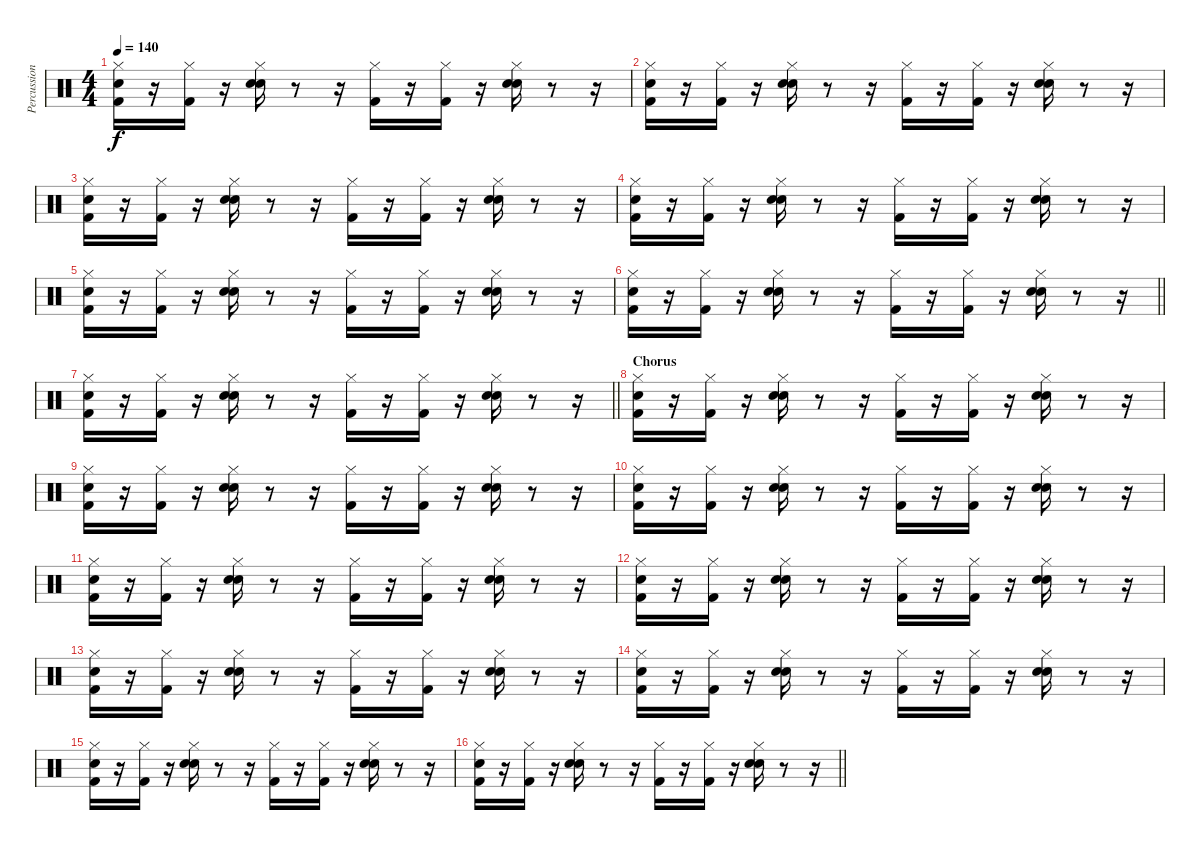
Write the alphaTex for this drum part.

\track ("Percussion" "Percussion") {instrument percussion}
\staff {score}
\articulation defaults
\ts (4 4)
\tempo 140
\clef neutral
\ks c
("Snare (hit)" "Kick (hit) 2" "Hi-Hat (closed)").16{dy f} r.16 ("Kick (hit) 2" "Hi-Hat (closed)").16 r.16 ("Hand Clap (hit)" "Hi-Hat (closed)" "Snare (hit) 2").16 r.8 r.16 ("Hi-Hat (closed)" "Kick (hit) 2").16 r.16 ("Hi-Hat (closed)" "Kick (hit) 2").16 r.16 ("Snare (hit) 2" "Hand Clap (hit)" "Hi-Hat (closed)").16 r.8 r.16 |
("Snare (hit)" "Kick (hit) 2" "Hi-Hat (closed)").16 r.16 ("Kick (hit) 2" "Hi-Hat (closed)").16 r.16 ("Hand Clap (hit)" "Hi-Hat (closed)" "Snare (hit) 2").16 r.8 r.16 ("Hi-Hat (closed)" "Kick (hit) 2").16 r.16 ("Hi-Hat (closed)" "Kick (hit) 2").16 r.16 ("Snare (hit) 2" "Hand Clap (hit)" "Hi-Hat (closed)").16 r.8 r.16 |
("Snare (hit)" "Kick (hit) 2" "Hi-Hat (closed)").16 r.16 ("Kick (hit) 2" "Hi-Hat (closed)").16 r.16 ("Hand Clap (hit)" "Hi-Hat (closed)" "Snare (hit) 2").16 r.8 r.16 ("Hi-Hat (closed)" "Kick (hit) 2").16 r.16 ("Hi-Hat (closed)" "Kick (hit) 2").16 r.16 ("Snare (hit) 2" "Hand Clap (hit)" "Hi-Hat (closed)").16 r.8 r.16 |
("Snare (hit)" "Kick (hit) 2" "Hi-Hat (closed)").16 r.16 ("Kick (hit) 2" "Hi-Hat (closed)").16 r.16 ("Hand Clap (hit)" "Hi-Hat (closed)" "Snare (hit) 2").16 r.8 r.16 ("Hi-Hat (closed)" "Kick (hit) 2").16 r.16 ("Hi-Hat (closed)" "Kick (hit) 2").16 r.16 ("Snare (hit) 2" "Hand Clap (hit)" "Hi-Hat (closed)").16 r.8 r.16 |
("Snare (hit)" "Kick (hit) 2" "Hi-Hat (closed)").16 r.16 ("Kick (hit) 2" "Hi-Hat (closed)").16 r.16 ("Hand Clap (hit)" "Hi-Hat (closed)" "Snare (hit) 2").16 r.8 r.16 ("Hi-Hat (closed)" "Kick (hit) 2").16 r.16 ("Hi-Hat (closed)" "Kick (hit) 2").16 r.16 ("Snare (hit) 2" "Hand Clap (hit)" "Hi-Hat (closed)").16 r.8 r.16 |
\barLineRight lightlight
("Snare (hit)" "Kick (hit) 2" "Hi-Hat (closed)").16 r.16 ("Kick (hit) 2" "Hi-Hat (closed)").16 r.16 ("Hand Clap (hit)" "Hi-Hat (closed)" "Snare (hit) 2").16 r.8 r.16 ("Hi-Hat (closed)" "Kick (hit) 2").16 r.16 ("Hi-Hat (closed)" "Kick (hit) 2").16 r.16 ("Snare (hit) 2" "Hand Clap (hit)" "Hi-Hat (closed)").16 r.8 r.16 |
\barLineRight lightlight
("Snare (hit)" "Kick (hit) 2" "Hi-Hat (closed)").16 r.16 ("Kick (hit) 2" "Hi-Hat (closed)").16 r.16 ("Hand Clap (hit)" "Hi-Hat (closed)" "Snare (hit) 2").16 r.8 r.16 ("Hi-Hat (closed)" "Kick (hit) 2").16 r.16 ("Hi-Hat (closed)" "Kick (hit) 2").16 r.16 ("Snare (hit) 2" "Hand Clap (hit)" "Hi-Hat (closed)").16 r.8 r.16 |
\section ("" "Chorus")
("Snare (hit)" "Kick (hit) 2" "Hi-Hat (closed)").16 r.16 ("Kick (hit) 2" "Hi-Hat (closed)").16 r.16 ("Hand Clap (hit)" "Hi-Hat (closed)" "Snare (hit) 2").16 r.8 r.16 ("Hi-Hat (closed)" "Kick (hit) 2").16 r.16 ("Hi-Hat (closed)" "Kick (hit) 2").16 r.16 ("Snare (hit) 2" "Hand Clap (hit)" "Hi-Hat (closed)").16 r.8 r.16 |
("Snare (hit)" "Kick (hit) 2" "Hi-Hat (closed)").16 r.16 ("Kick (hit) 2" "Hi-Hat (closed)").16 r.16 ("Hand Clap (hit)" "Hi-Hat (closed)" "Snare (hit) 2").16 r.8 r.16 ("Hi-Hat (closed)" "Kick (hit) 2").16 r.16 ("Hi-Hat (closed)" "Kick (hit) 2").16 r.16 ("Snare (hit) 2" "Hand Clap (hit)" "Hi-Hat (closed)").16 r.8 r.16 |
("Snare (hit)" "Kick (hit) 2" "Hi-Hat (closed)").16 r.16 ("Kick (hit) 2" "Hi-Hat (closed)").16 r.16 ("Hand Clap (hit)" "Hi-Hat (closed)" "Snare (hit) 2").16 r.8 r.16 ("Hi-Hat (closed)" "Kick (hit) 2").16 r.16 ("Hi-Hat (closed)" "Kick (hit) 2").16 r.16 ("Snare (hit) 2" "Hand Clap (hit)" "Hi-Hat (closed)").16 r.8 r.16 |
("Snare (hit)" "Kick (hit) 2" "Hi-Hat (closed)").16 r.16 ("Kick (hit) 2" "Hi-Hat (closed)").16 r.16 ("Hand Clap (hit)" "Hi-Hat (closed)" "Snare (hit) 2").16 r.8 r.16 ("Hi-Hat (closed)" "Kick (hit) 2").16 r.16 ("Hi-Hat (closed)" "Kick (hit) 2").16 r.16 ("Snare (hit) 2" "Hand Clap (hit)" "Hi-Hat (closed)").16 r.8 r.16 |
("Snare (hit)" "Kick (hit) 2" "Hi-Hat (closed)").16 r.16 ("Kick (hit) 2" "Hi-Hat (closed)").16 r.16 ("Hand Clap (hit)" "Hi-Hat (closed)" "Snare (hit) 2").16 r.8 r.16 ("Hi-Hat (closed)" "Kick (hit) 2").16 r.16 ("Hi-Hat (closed)" "Kick (hit) 2").16 r.16 ("Snare (hit) 2" "Hand Clap (hit)" "Hi-Hat (closed)").16 r.8 r.16 |
("Snare (hit)" "Kick (hit) 2" "Hi-Hat (closed)").16 r.16 ("Kick (hit) 2" "Hi-Hat (closed)").16 r.16 ("Hand Clap (hit)" "Hi-Hat (closed)" "Snare (hit) 2").16 r.8 r.16 ("Hi-Hat (closed)" "Kick (hit) 2").16 r.16 ("Hi-Hat (closed)" "Kick (hit) 2").16 r.16 ("Snare (hit) 2" "Hand Clap (hit)" "Hi-Hat (closed)").16 r.8 r.16 |
("Snare (hit)" "Kick (hit) 2" "Hi-Hat (closed)").16 r.16 ("Kick (hit) 2" "Hi-Hat (closed)").16 r.16 ("Hand Clap (hit)" "Hi-Hat (closed)" "Snare (hit) 2").16 r.8 r.16 ("Hi-Hat (closed)" "Kick (hit) 2").16 r.16 ("Hi-Hat (closed)" "Kick (hit) 2").16 r.16 ("Snare (hit) 2" "Hand Clap (hit)" "Hi-Hat (closed)").16 r.8 r.16 |
("Snare (hit)" "Kick (hit) 2" "Hi-Hat (closed)").16 r.16 ("Kick (hit) 2" "Hi-Hat (closed)").16 r.16 ("Hand Clap (hit)" "Hi-Hat (closed)" "Snare (hit) 2").16 r.8 r.16 ("Hi-Hat (closed)" "Kick (hit) 2").16 r.16 ("Hi-Hat (closed)" "Kick (hit) 2").16 r.16 ("Snare (hit) 2" "Hand Clap (hit)" "Hi-Hat (closed)").16 r.8 r.16 |
\barLineRight lightlight
("Snare (hit)" "Kick (hit) 2" "Hi-Hat (closed)").16 r.16 ("Kick (hit) 2" "Hi-Hat (closed)").16 r.16 ("Hand Clap (hit)" "Hi-Hat (closed)" "Snare (hit) 2").16 r.8 r.16 ("Hi-Hat (closed)" "Kick (hit) 2").16 r.16 ("Hi-Hat (closed)" "Kick (hit) 2").16 r.16 ("Snare (hit) 2" "Hand Clap (hit)" "Hi-Hat (closed)").16 r.8 r.16
